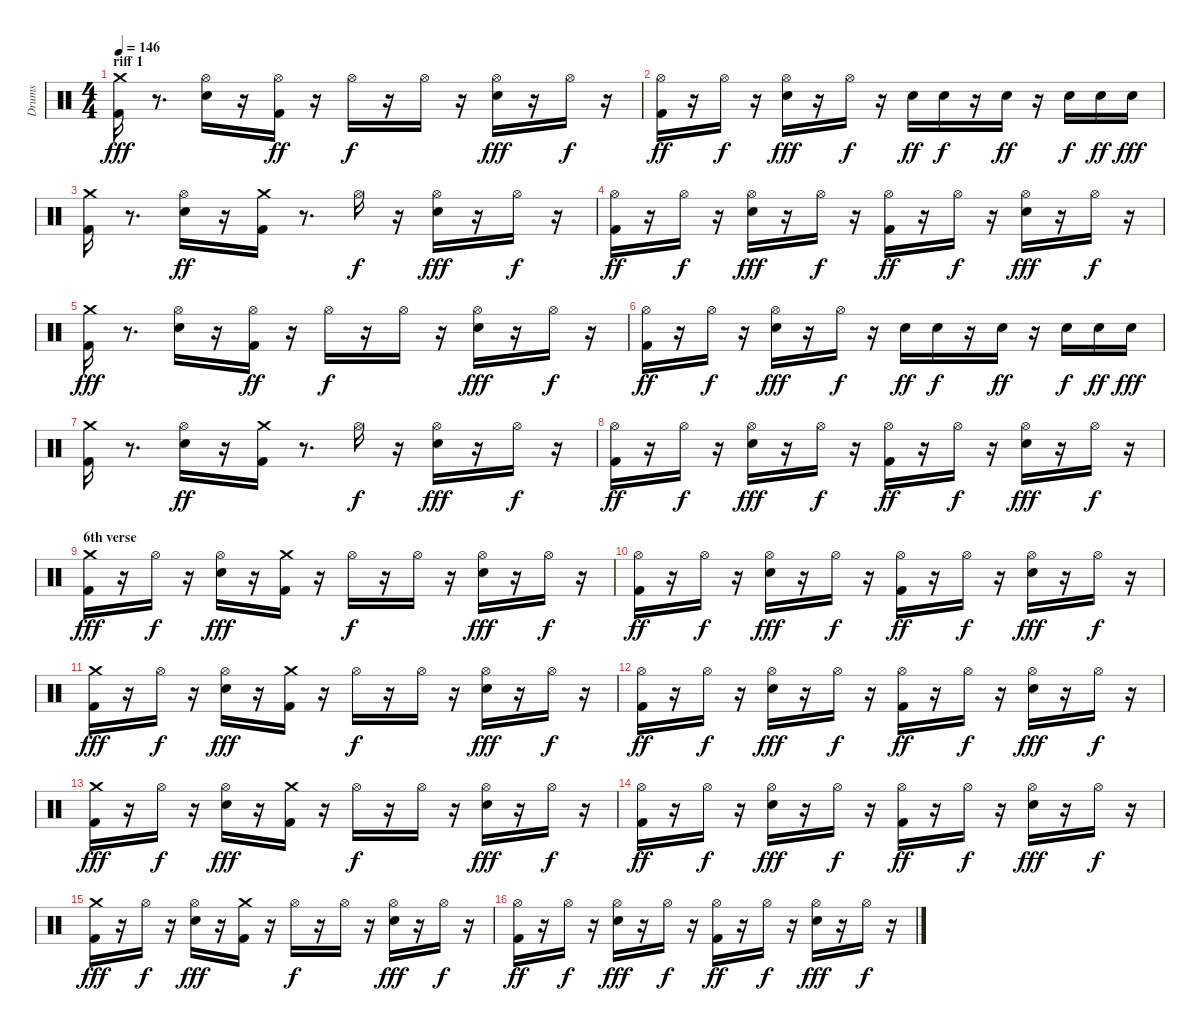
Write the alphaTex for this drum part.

\track ("Drums" "Drums") {instrument percussion}
\staff {score}
\articulation defaults
\ts (4 4)
\section ("" "riff 1")
\tempo 146
\clef neutral
\ks c
("Kick (hit) 2" "Crash medium (hit)").16{dy fff} r.8{d} ("Snare (hit) 2" "Hi-Hat (open)").16 r.16 ("Kick (hit) 2" "Hi-Hat (open)").16{dy ff} r.16 "Hi-Hat (open)".16{dy f} r.16 "Hi-Hat (open)".16 r.16 ("Snare (hit) 2" "Hi-Hat (open)").16{dy fff} r.16 "Hi-Hat (open)".16{dy f} r.16 |
("Kick (hit) 2" "Hi-Hat (open)").16{dy ff} r.16 "Hi-Hat (open)".16{dy f} r.16 ("Snare (hit) 2" "Hi-Hat (open)").16{dy fff} r.16 "Hi-Hat (open)".16{dy f} r.16 "Snare (hit) 2".16{dy ff} "Snare (hit) 2".16{dy f} r.16 "Snare (hit) 2".16{dy ff} r.16 "Snare (hit) 2".16{dy f} "Snare (hit) 2".16{dy ff} "Snare (hit) 2".16{dy fff} |
("Kick (hit) 2" "Crash medium (hit)").16 r.8{d} ("Snare (hit) 2" "Hi-Hat (open)").16{dy ff} r.16 ("Kick (hit) 2" "Crash medium (hit)").16 r.8{d} "Hi-Hat (open)".16{dy f} r.16 ("Snare (hit) 2" "Hi-Hat (open)").16{dy fff} r.16 "Hi-Hat (open)".16{dy f} r.16 |
("Kick (hit) 2" "Hi-Hat (open)").16{dy ff} r.16 "Hi-Hat (open)".16{dy f} r.16 ("Snare (hit) 2" "Hi-Hat (open)").16{dy fff} r.16 "Hi-Hat (open)".16{dy f} r.16 ("Kick (hit) 2" "Hi-Hat (open)").16{dy ff} r.16 "Hi-Hat (open)".16{dy f} r.16 ("Snare (hit) 2" "Hi-Hat (open)").16{dy fff} r.16 "Hi-Hat (open)".16{dy f} r.16 |
("Kick (hit) 2" "Crash medium (hit)").16{dy fff} r.8{d} ("Snare (hit) 2" "Hi-Hat (open)").16 r.16 ("Kick (hit) 2" "Hi-Hat (open)").16{dy ff} r.16 "Hi-Hat (open)".16{dy f} r.16 "Hi-Hat (open)".16 r.16 ("Snare (hit) 2" "Hi-Hat (open)").16{dy fff} r.16 "Hi-Hat (open)".16{dy f} r.16 |
("Kick (hit) 2" "Hi-Hat (open)").16{dy ff} r.16 "Hi-Hat (open)".16{dy f} r.16 ("Snare (hit) 2" "Hi-Hat (open)").16{dy fff} r.16 "Hi-Hat (open)".16{dy f} r.16 "Snare (hit) 2".16{dy ff} "Snare (hit) 2".16{dy f} r.16 "Snare (hit) 2".16{dy ff} r.16 "Snare (hit) 2".16{dy f} "Snare (hit) 2".16{dy ff} "Snare (hit) 2".16{dy fff} |
("Kick (hit) 2" "Crash medium (hit)").16 r.8{d} ("Snare (hit) 2" "Hi-Hat (open)").16{dy ff} r.16 ("Kick (hit) 2" "Crash medium (hit)").16 r.8{d} "Hi-Hat (open)".16{dy f} r.16 ("Snare (hit) 2" "Hi-Hat (open)").16{dy fff} r.16 "Hi-Hat (open)".16{dy f} r.16 |
("Kick (hit) 2" "Hi-Hat (open)").16{dy ff} r.16 "Hi-Hat (open)".16{dy f} r.16 ("Snare (hit) 2" "Hi-Hat (open)").16{dy fff} r.16 "Hi-Hat (open)".16{dy f} r.16 ("Kick (hit) 2" "Hi-Hat (open)").16{dy ff} r.16 "Hi-Hat (open)".16{dy f} r.16 ("Snare (hit) 2" "Hi-Hat (open)").16{dy fff} r.16 "Hi-Hat (open)".16{dy f} r.16 |
\section ("" "6th verse")
("Kick (hit) 2" "Crash medium (hit)").16{dy fff} r.16 "Hi-Hat (open)".16{dy f} r.16 ("Snare (hit) 2" "Hi-Hat (open)").16{dy fff} r.16 ("Kick (hit) 2" "Crash medium (hit)").16 r.16 "Hi-Hat (open)".16{dy f} r.16 "Hi-Hat (open)".16 r.16 ("Snare (hit) 2" "Hi-Hat (open)").16{dy fff} r.16 "Hi-Hat (open)".16{dy f} r.16 |
("Kick (hit) 2" "Hi-Hat (open)").16{dy ff} r.16 "Hi-Hat (open)".16{dy f} r.16 ("Snare (hit) 2" "Hi-Hat (open)").16{dy fff} r.16 "Hi-Hat (open)".16{dy f} r.16 ("Kick (hit) 2" "Hi-Hat (open)").16{dy ff} r.16 "Hi-Hat (open)".16{dy f} r.16 ("Snare (hit) 2" "Hi-Hat (open)").16{dy fff} r.16 "Hi-Hat (open)".16{dy f} r.16 |
("Kick (hit) 2" "Crash medium (hit)").16{dy fff} r.16 "Hi-Hat (open)".16{dy f} r.16 ("Snare (hit) 2" "Hi-Hat (open)").16{dy fff} r.16 ("Kick (hit) 2" "Crash medium (hit)").16 r.16 "Hi-Hat (open)".16{dy f} r.16 "Hi-Hat (open)".16 r.16 ("Snare (hit) 2" "Hi-Hat (open)").16{dy fff} r.16 "Hi-Hat (open)".16{dy f} r.16 |
("Kick (hit) 2" "Hi-Hat (open)").16{dy ff} r.16 "Hi-Hat (open)".16{dy f} r.16 ("Snare (hit) 2" "Hi-Hat (open)").16{dy fff} r.16 "Hi-Hat (open)".16{dy f} r.16 ("Kick (hit) 2" "Hi-Hat (open)").16{dy ff} r.16 "Hi-Hat (open)".16{dy f} r.16 ("Snare (hit) 2" "Hi-Hat (open)").16{dy fff} r.16 "Hi-Hat (open)".16{dy f} r.16 |
("Kick (hit) 2" "Crash medium (hit)").16{dy fff} r.16 "Hi-Hat (open)".16{dy f} r.16 ("Snare (hit) 2" "Hi-Hat (open)").16{dy fff} r.16 ("Kick (hit) 2" "Crash medium (hit)").16 r.16 "Hi-Hat (open)".16{dy f} r.16 "Hi-Hat (open)".16 r.16 ("Snare (hit) 2" "Hi-Hat (open)").16{dy fff} r.16 "Hi-Hat (open)".16{dy f} r.16 |
("Kick (hit) 2" "Hi-Hat (open)").16{dy ff} r.16 "Hi-Hat (open)".16{dy f} r.16 ("Snare (hit) 2" "Hi-Hat (open)").16{dy fff} r.16 "Hi-Hat (open)".16{dy f} r.16 ("Kick (hit) 2" "Hi-Hat (open)").16{dy ff} r.16 "Hi-Hat (open)".16{dy f} r.16 ("Snare (hit) 2" "Hi-Hat (open)").16{dy fff} r.16 "Hi-Hat (open)".16{dy f} r.16 |
("Kick (hit) 2" "Crash medium (hit)").16{dy fff} r.16 "Hi-Hat (open)".16{dy f} r.16 ("Snare (hit) 2" "Hi-Hat (open)").16{dy fff} r.16 ("Kick (hit) 2" "Crash medium (hit)").16 r.16 "Hi-Hat (open)".16{dy f} r.16 "Hi-Hat (open)".16 r.16 ("Snare (hit) 2" "Hi-Hat (open)").16{dy fff} r.16 "Hi-Hat (open)".16{dy f} r.16 |
("Kick (hit) 2" "Hi-Hat (open)").16{dy ff} r.16 "Hi-Hat (open)".16{dy f} r.16 ("Snare (hit) 2" "Hi-Hat (open)").16{dy fff} r.16 "Hi-Hat (open)".16{dy f} r.16 ("Kick (hit) 2" "Hi-Hat (open)").16{dy ff} r.16 "Hi-Hat (open)".16{dy f} r.16 ("Snare (hit) 2" "Hi-Hat (open)").16{dy fff} r.16 "Hi-Hat (open)".16{dy f} r.16
